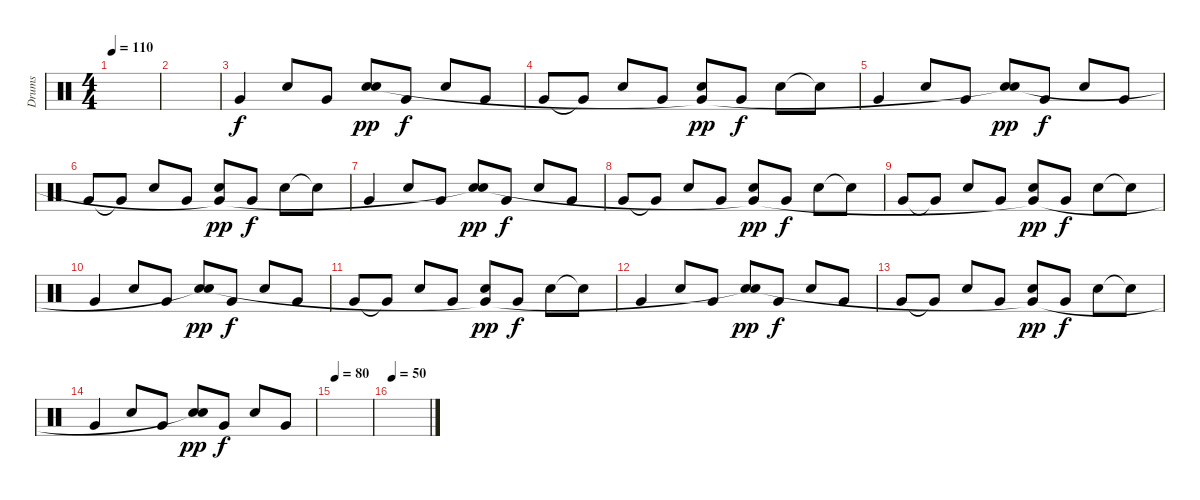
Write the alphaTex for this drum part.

\track ("Drums" "Drums") {instrument percussion}
\staff {score}
\articulation defaults
\ts (4 4)
\tempo 110
\clef neutral
\ks c
|
|
"Very Low Tom (hit)".4 "Electric Snare (hit)".8 "Very Low Tom (hit)".8 ("Electric Snare (hit)" "Snare (hit)"{t}).8{dy pp} "Very Low Tom (hit)".8{dy f} "Electric Snare (hit)".8 "Very Low Tom (hit)".8 |
"Very Low Tom (hit)".8 "Very Low Tom (hit)"{t}.8 "Electric Snare (hit)".8 "Very Low Tom (hit)".8 ("Electric Snare (hit)" "Very Low Tom (hit)"{t}).8{dy pp} "Very Low Tom (hit)".8{dy f} "Electric Snare (hit)".8 "Snare (hit)"{t}.8 |
"Very Low Tom (hit)".4 "Electric Snare (hit)".8 "Very Low Tom (hit)".8 ("Electric Snare (hit)" "Snare (hit)"{t}).8{dy pp} "Very Low Tom (hit)".8{dy f} "Electric Snare (hit)".8 "Very Low Tom (hit)".8 |
"Very Low Tom (hit)".8 "Very Low Tom (hit)"{t}.8 "Electric Snare (hit)".8 "Very Low Tom (hit)".8 ("Electric Snare (hit)" "Very Low Tom (hit)"{t}).8{dy pp} "Very Low Tom (hit)".8{dy f} "Electric Snare (hit)".8 "Snare (hit)"{t}.8 |
"Very Low Tom (hit)".4 "Electric Snare (hit)".8 "Very Low Tom (hit)".8 ("Electric Snare (hit)" "Snare (hit)"{t}).8{dy pp} "Very Low Tom (hit)".8{dy f} "Electric Snare (hit)".8 "Very Low Tom (hit)".8 |
"Very Low Tom (hit)".8 "Very Low Tom (hit)"{t}.8 "Electric Snare (hit)".8 "Very Low Tom (hit)".8 ("Electric Snare (hit)" "Very Low Tom (hit)"{t}).8{dy pp} "Very Low Tom (hit)".8{dy f} "Electric Snare (hit)".8 "Snare (hit)"{t}.8 |
"Very Low Tom (hit)".8 "Very Low Tom (hit)"{t}.8 "Electric Snare (hit)".8 "Very Low Tom (hit)".8 ("Electric Snare (hit)" "Very Low Tom (hit)"{t}).8{dy pp} "Very Low Tom (hit)".8{dy f} "Electric Snare (hit)".8 "Snare (hit)"{t}.8 |
"Very Low Tom (hit)".4 "Electric Snare (hit)".8 "Very Low Tom (hit)".8 ("Electric Snare (hit)" "Snare (hit)"{t}).8{dy pp} "Very Low Tom (hit)".8{dy f} "Electric Snare (hit)".8 "Very Low Tom (hit)".8 |
"Very Low Tom (hit)".8 "Very Low Tom (hit)"{t}.8 "Electric Snare (hit)".8 "Very Low Tom (hit)".8 ("Electric Snare (hit)" "Very Low Tom (hit)"{t}).8{dy pp} "Very Low Tom (hit)".8{dy f} "Electric Snare (hit)".8 "Snare (hit)"{t}.8 |
"Very Low Tom (hit)".4 "Electric Snare (hit)".8 "Very Low Tom (hit)".8 ("Electric Snare (hit)" "Snare (hit)"{t}).8{dy pp} "Very Low Tom (hit)".8{dy f} "Electric Snare (hit)".8 "Very Low Tom (hit)".8 |
"Very Low Tom (hit)".8 "Very Low Tom (hit)"{t}.8 "Electric Snare (hit)".8 "Very Low Tom (hit)".8 ("Electric Snare (hit)" "Very Low Tom (hit)"{t}).8{dy pp} "Very Low Tom (hit)".8{dy f} "Electric Snare (hit)".8 "Snare (hit)"{t}.8 |
"Very Low Tom (hit)".4 "Electric Snare (hit)".8 "Very Low Tom (hit)".8 ("Electric Snare (hit)" "Snare (hit)"{t}).8{dy pp} "Very Low Tom (hit)".8{dy f} "Electric Snare (hit)".8 "Very Low Tom (hit)".8 |
\tempo 80
|
\tempo 50
